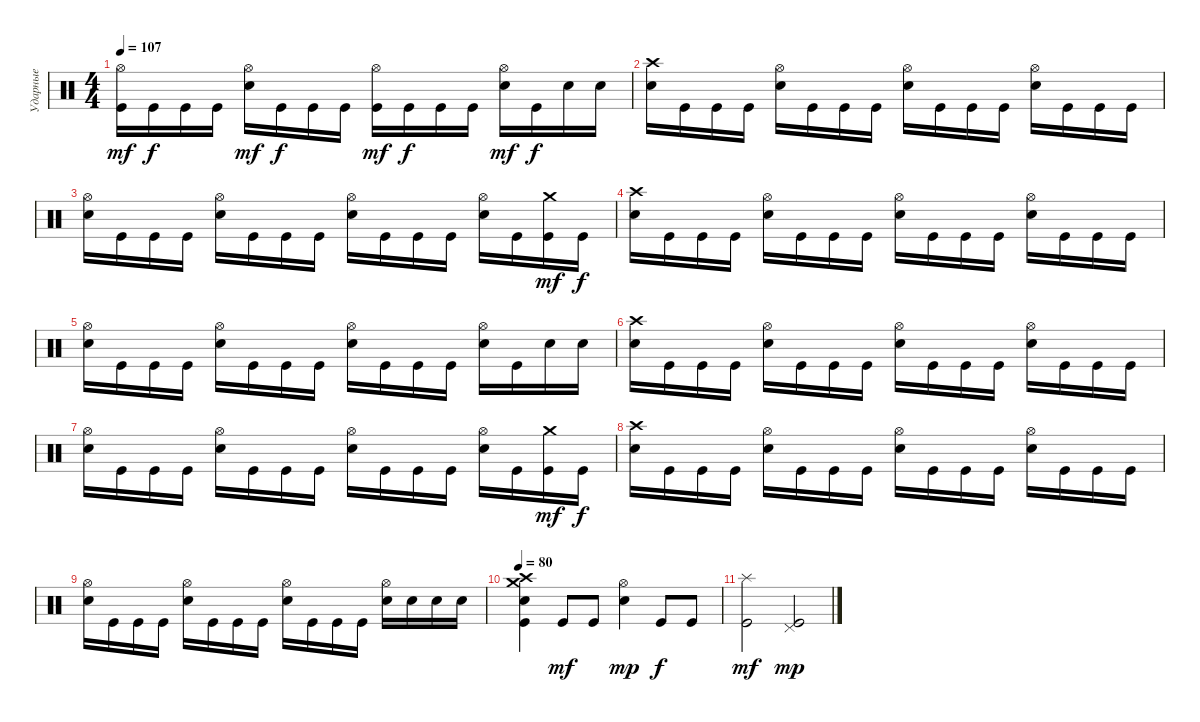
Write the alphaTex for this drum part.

\track ("Ударные" "Ударные") {instrument percussion}
\staff {score}
\articulation defaults
\ts (4 4)
\tempo 107
\clef neutral
\ks c
("Hi-Hat (open)" "Kick (hit)").16{dy mf} "Kick (hit)".16{dy f} "Kick (hit)".16 "Kick (hit)".16 ("Hi-Hat (open)" "Electric Snare (hit)").16{dy mf} "Kick (hit)".16{dy f} "Kick (hit)".16 "Kick (hit)".16 ("Hi-Hat (open)" "Kick (hit)").16{dy mf} "Kick (hit)".16{dy f} "Kick (hit)".16 "Kick (hit)".16 ("Hi-Hat (open)" "Electric Snare (hit)").16{dy mf} "Kick (hit)".16{dy f} "Electric Snare (hit)".16 "Electric Snare (hit)".16 |
("Crash high (hit)" "Electric Snare (hit)").16 "Kick (hit)".16 "Kick (hit)".16 "Kick (hit)".16 ("Hi-Hat (open)" "Electric Snare (hit)").16 "Kick (hit)".16 "Kick (hit)".16 "Kick (hit)".16 ("Hi-Hat (open)" "Electric Snare (hit)").16 "Kick (hit)".16 "Kick (hit)".16 "Kick (hit)".16 ("Hi-Hat (open)" "Electric Snare (hit)").16 "Kick (hit)".16 "Kick (hit)".16 "Kick (hit)".16 |
("Hi-Hat (open)" "Electric Snare (hit)").16 "Kick (hit)".16 "Kick (hit)".16 "Kick (hit)".16 ("Hi-Hat (open)" "Electric Snare (hit)").16 "Kick (hit)".16 "Kick (hit)".16 "Kick (hit)".16 ("Hi-Hat (open)" "Electric Snare (hit)").16 "Kick (hit)".16 "Kick (hit)".16 "Kick (hit)".16 ("Hi-Hat (open)" "Electric Snare (hit)").16 "Kick (hit)".16 ("Crash medium (hit)" "Kick (hit)").16{dy mf} "Kick (hit)".16{dy f} |
("Crash high (hit)" "Electric Snare (hit)").16 "Kick (hit)".16 "Kick (hit)".16 "Kick (hit)".16 ("Hi-Hat (open)" "Electric Snare (hit)").16 "Kick (hit)".16 "Kick (hit)".16 "Kick (hit)".16 ("Hi-Hat (open)" "Electric Snare (hit)").16 "Kick (hit)".16 "Kick (hit)".16 "Kick (hit)".16 ("Hi-Hat (open)" "Electric Snare (hit)").16 "Kick (hit)".16 "Kick (hit)".16 "Kick (hit)".16 |
("Hi-Hat (open)" "Electric Snare (hit)").16 "Kick (hit)".16 "Kick (hit)".16 "Kick (hit)".16 ("Hi-Hat (open)" "Electric Snare (hit)").16 "Kick (hit)".16 "Kick (hit)".16 "Kick (hit)".16 ("Hi-Hat (open)" "Electric Snare (hit)").16 "Kick (hit)".16 "Kick (hit)".16 "Kick (hit)".16 ("Hi-Hat (open)" "Electric Snare (hit)").16 "Kick (hit)".16 "Electric Snare (hit)".16 "Electric Snare (hit)".16 |
("Crash high (hit)" "Electric Snare (hit)").16 "Kick (hit)".16 "Kick (hit)".16 "Kick (hit)".16 ("Hi-Hat (open)" "Electric Snare (hit)").16 "Kick (hit)".16 "Kick (hit)".16 "Kick (hit)".16 ("Hi-Hat (open)" "Electric Snare (hit)").16 "Kick (hit)".16 "Kick (hit)".16 "Kick (hit)".16 ("Hi-Hat (open)" "Electric Snare (hit)").16 "Kick (hit)".16 "Kick (hit)".16 "Kick (hit)".16 |
("Hi-Hat (open)" "Electric Snare (hit)").16 "Kick (hit)".16 "Kick (hit)".16 "Kick (hit)".16 ("Hi-Hat (open)" "Electric Snare (hit)").16 "Kick (hit)".16 "Kick (hit)".16 "Kick (hit)".16 ("Hi-Hat (open)" "Electric Snare (hit)").16 "Kick (hit)".16 "Kick (hit)".16 "Kick (hit)".16 ("Hi-Hat (open)" "Electric Snare (hit)").16 "Kick (hit)".16 ("Crash medium (hit)" "Kick (hit)").16{dy mf} "Kick (hit)".16{dy f} |
("Crash high (hit)" "Electric Snare (hit)").16 "Kick (hit)".16 "Kick (hit)".16 "Kick (hit)".16 ("Hi-Hat (open)" "Electric Snare (hit)").16 "Kick (hit)".16 "Kick (hit)".16 "Kick (hit)".16 ("Hi-Hat (open)" "Electric Snare (hit)").16 "Kick (hit)".16 "Kick (hit)".16 "Kick (hit)".16 ("Hi-Hat (open)" "Electric Snare (hit)").16 "Kick (hit)".16 "Kick (hit)".16 "Kick (hit)".16 |
("Hi-Hat (open)" "Electric Snare (hit)").16 "Kick (hit)".16 "Kick (hit)".16 "Kick (hit)".16 ("Hi-Hat (open)" "Electric Snare (hit)").16 "Kick (hit)".16 "Kick (hit)".16 "Kick (hit)".16 ("Hi-Hat (open)" "Electric Snare (hit)").16 "Kick (hit)".16 "Kick (hit)".16 "Kick (hit)".16 ("Hi-Hat (open)" "Electric Snare (hit)").16 "Electric Snare (hit)".16 "Electric Snare (hit)".16 "Electric Snare (hit)".16 |
\tempo 95
\tempo 80
("Crash high (hit)" "Electric Snare (hit)" "Kick (hit)" "Crash medium (hit)").4 "Kick (hit)".8{dy mf} "Kick (hit)".8 ("Hi-Hat (open)" "Electric Snare (hit)").4{dy mp} "Kick (hit)".8{dy f} "Kick (hit)".8 |
("Kick (hit)" "Splash (hit)").2{dy mf} ("Kick (hit)" "Pedal Hi-Hat (hit)").2{dy mp}
